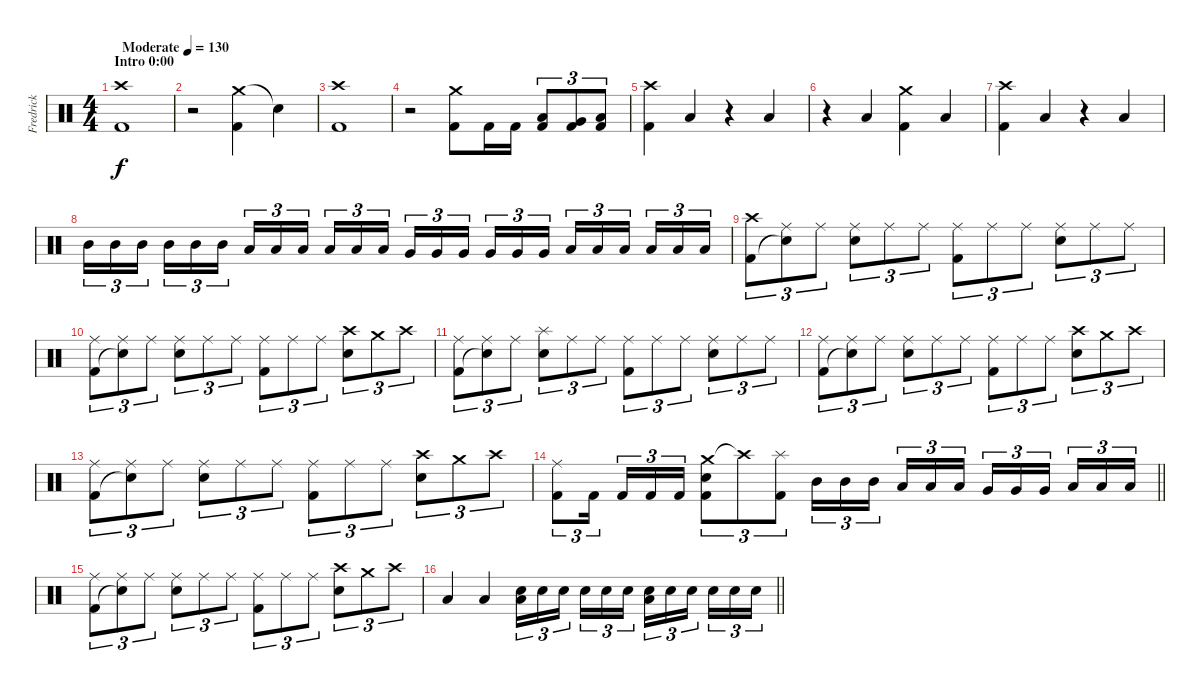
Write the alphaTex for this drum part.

\track ("Fredrick" "Fredrick") {instrument percussion}
\staff {score}
\articulation defaults
\ts (4 4)
\section ("" "Intro 0:00")
\tempo (130 "Moderate")
\clef neutral
\ks c
("Crash high (hit)" "Kick (hit) 2").1{dy f} |
r.2 ("Crash medium (hit)" "Kick (hit) 2").4 "Snare (hit)"{t}.4 |
("Crash high (hit)" "Kick (hit) 2").1 |
r.2 ("Crash medium (hit)" "Kick (hit) 2").8 "Kick (hit) 2".16 "Kick (hit) 2".16 ("Low Tom (hit)" "Kick (hit) 2").8{tu (3 2)} ("Very Low Tom (hit)" "Kick (hit) 2").8{tu (3 2)} ("Low Floor Tom (hit)" "Kick (hit) 2").8{tu (3 2)} |
("Crash high (hit)" "Kick (hit) 2").4 "Low Floor Tom (hit)".4 r.4 "Low Floor Tom (hit)".4 |
r.4 "Low Floor Tom (hit)".4 ("Crash medium (hit)" "Kick (hit) 2").4 "Low Floor Tom (hit)".4 |
("Crash high (hit)" "Kick (hit) 2").4 "Low Floor Tom (hit)".4 r.4 "Low Floor Tom (hit)".4 |
"Mid Tom (hit)".16{tu (3 2)} "Mid Tom (hit)".16{tu (3 2)} "Mid Tom (hit)".16{tu (3 2) beam splitsecondary} "Mid Tom (hit)".16{tu (3 2)} "Mid Tom (hit)".16{tu (3 2)} "Mid Tom (hit)".16{tu (3 2)} "Low Tom (hit)".16{tu (3 2)} "Low Tom (hit)".16{tu (3 2)} "Low Tom (hit)".16{tu (3 2) beam splitsecondary} "Low Tom (hit)".16{tu (3 2)} "Low Tom (hit)".16{tu (3 2)} "Low Tom (hit)".16{tu (3 2)} "Very Low Tom (hit)".16{tu (3 2)} "Very Low Tom (hit)".16{tu (3 2)} "Very Low Tom (hit)".16{tu (3 2) beam splitsecondary} "Very Low Tom (hit)".16{tu (3 2)} "Very Low Tom (hit)".16{tu (3 2)} "Very Low Tom (hit)".16{tu (3 2)} "Low Floor Tom (hit)".16{tu (3 2)} "Low Floor Tom (hit)".16{tu (3 2)} "Low Floor Tom (hit)".16{tu (3 2) beam splitsecondary} "Low Floor Tom (hit)".16{tu (3 2)} "Low Floor Tom (hit)".16{tu (3 2)} "Low Floor Tom (hit)".16{tu (3 2)} |
("Crash high (hit)" "Kick (hit) 2").8{tu (3 2)} ("Ride (middle)" "Snare (hit)"{t}).8{tu (3 2)} "Ride (middle)".8{tu (3 2)} ("Ride (middle)" "Electric Snare (hit)").8{tu (3 2)} "Ride (middle)".8{tu (3 2)} "Ride (middle)".8{tu (3 2)} ("Ride (middle)" "Kick (hit) 2").8{tu (3 2)} "Ride (middle)".8{tu (3 2)} "Ride (middle)".8{tu (3 2)} ("Ride (middle)" "Electric Snare (hit)").8{tu (3 2)} "Ride (middle)".8{tu (3 2)} "Ride (middle)".8{tu (3 2)} |
("Ride (middle)" "Kick (hit) 2").8{tu (3 2)} ("Ride (middle)" "Snare (hit)"{t}).8{tu (3 2)} "Ride (middle)".8{tu (3 2)} ("Ride (middle)" "Electric Snare (hit)").8{tu (3 2)} "Ride (middle)".8{tu (3 2)} "Ride (middle)".8{tu (3 2)} ("Ride (middle)" "Kick (hit) 2").8{tu (3 2)} "Ride (middle)".8{tu (3 2)} "Ride (middle)".8{tu (3 2)} ("Crash high (hit)" "Electric Snare (hit)").8{tu (3 2)} "Crash medium (hit)".8{tu (3 2)} "Crash high (hit)".8{tu (3 2)} |
("Ride (middle)" "Kick (hit) 2").8{tu (3 2)} ("Ride (middle)" "Snare (hit)"{t}).8{tu (3 2)} "Ride (middle)".8{tu (3 2)} ("Splash (hit)" "Electric Snare (hit)").8{tu (3 2)} "Ride (middle)".8{tu (3 2)} "Ride (middle)".8{tu (3 2)} ("Ride (middle)" "Kick (hit) 2").8{tu (3 2)} "Ride (middle)".8{tu (3 2)} "Ride (middle)".8{tu (3 2)} ("Ride (middle)" "Electric Snare (hit)").8{tu (3 2)} "Ride (middle)".8{tu (3 2)} "Ride (middle)".8{tu (3 2)} |
("Ride (middle)" "Kick (hit) 2").8{tu (3 2)} ("Ride (middle)" "Snare (hit)"{t}).8{tu (3 2)} "Ride (middle)".8{tu (3 2)} ("Ride (middle)" "Electric Snare (hit)").8{tu (3 2)} "Ride (middle)".8{tu (3 2)} "Ride (middle)".8{tu (3 2)} ("Ride (middle)" "Kick (hit) 2").8{tu (3 2)} "Ride (middle)".8{tu (3 2)} "Ride (middle)".8{tu (3 2)} ("Crash high (hit)" "Electric Snare (hit)").8{tu (3 2)} "Crash medium (hit)".8{tu (3 2)} "Crash high (hit)".8{tu (3 2)} |
("Ride (middle)" "Kick (hit) 2").8{tu (3 2)} ("Ride (middle)" "Snare (hit)"{t}).8{tu (3 2)} "Ride (middle)".8{tu (3 2)} ("Ride (middle)" "Electric Snare (hit)").8{tu (3 2)} "Ride (middle)".8{tu (3 2)} "Ride (middle)".8{tu (3 2)} ("Ride (middle)" "Kick (hit) 2").8{tu (3 2)} "Ride (middle)".8{tu (3 2)} "Ride (middle)".8{tu (3 2)} ("Crash high (hit)" "Electric Snare (hit)").8{tu (3 2)} "Crash medium (hit)".8{tu (3 2)} "Crash high (hit)".8{tu (3 2)} |
\barLineRight lightlight
("Ride (middle)" "Kick (hit) 2").8{tu (3 2)} "Kick (hit) 2".16{tu (3 2) beam splitsecondary} "Kick (hit) 2".16{tu (3 2)} "Kick (hit) 2".16{tu (3 2)} "Kick (hit) 2".16{tu (3 2)} ("Crash medium (hit)" "Electric Snare (hit)" "Kick (hit) 2").8{tu (3 2)} "Crash high (hit)"{t}.8{tu (3 2)} ("Splash (hit)" "Kick (hit) 2").8{tu (3 2)} "Mid Tom (hit)".16{tu (3 2)} "Mid Tom (hit)".16{tu (3 2)} "Mid Tom (hit)".16{tu (3 2) beam splitsecondary} "Low Tom (hit)".16{tu (3 2)} "Low Tom (hit)".16{tu (3 2)} "Low Tom (hit)".16{tu (3 2)} "Very Low Tom (hit)".16{tu (3 2)} "Very Low Tom (hit)".16{tu (3 2)} "Very Low Tom (hit)".16{tu (3 2) beam splitsecondary} "Low Floor Tom (hit)".16{tu (3 2)} "Low Floor Tom (hit)".16{tu (3 2)} "Low Floor Tom (hit)".16{tu (3 2)} |
("Ride (middle)" "Kick (hit) 2").8{tu (3 2)} ("Ride (middle)" "Snare (hit)"{t}).8{tu (3 2)} "Ride (middle)".8{tu (3 2)} ("Ride (middle)" "Electric Snare (hit)").8{tu (3 2)} "Ride (middle)".8{tu (3 2)} "Ride (middle)".8{tu (3 2)} ("Ride (middle)" "Kick (hit) 2").8{tu (3 2)} "Ride (middle)".8{tu (3 2)} "Ride (middle)".8{tu (3 2)} ("Crash high (hit)" "Electric Snare (hit)").8{tu (3 2)} "Crash medium (hit)".8{tu (3 2)} "Crash high (hit)".8{tu (3 2)} |
\barLineRight lightlight "Low Floor Tom (hit)".4 "Low Floor Tom (hit)".4
("Low Floor Tom (hit)" "Electric Snare (hit)").16{tu (3 2)} "Electric Snare (hit)".16{tu (3 2)} "Electric Snare (hit)".16{tu (3 2) beam splitsecondary} "Electric Snare (hit)".16{tu (3 2)} "Electric Snare (hit)".16{tu (3 2)} "Electric Snare (hit)".16{tu (3 2)} ("Low Floor Tom (hit)" "Electric Snare (hit)").16{tu (3 2)} "Electric Snare (hit)".16{tu (3 2)} "Electric Snare (hit)".16{tu (3 2) beam splitsecondary} "Electric Snare (hit)".16{tu (3 2)} "Electric Snare (hit)".16{tu (3 2)} "Electric Snare (hit)".16{tu (3 2)}
